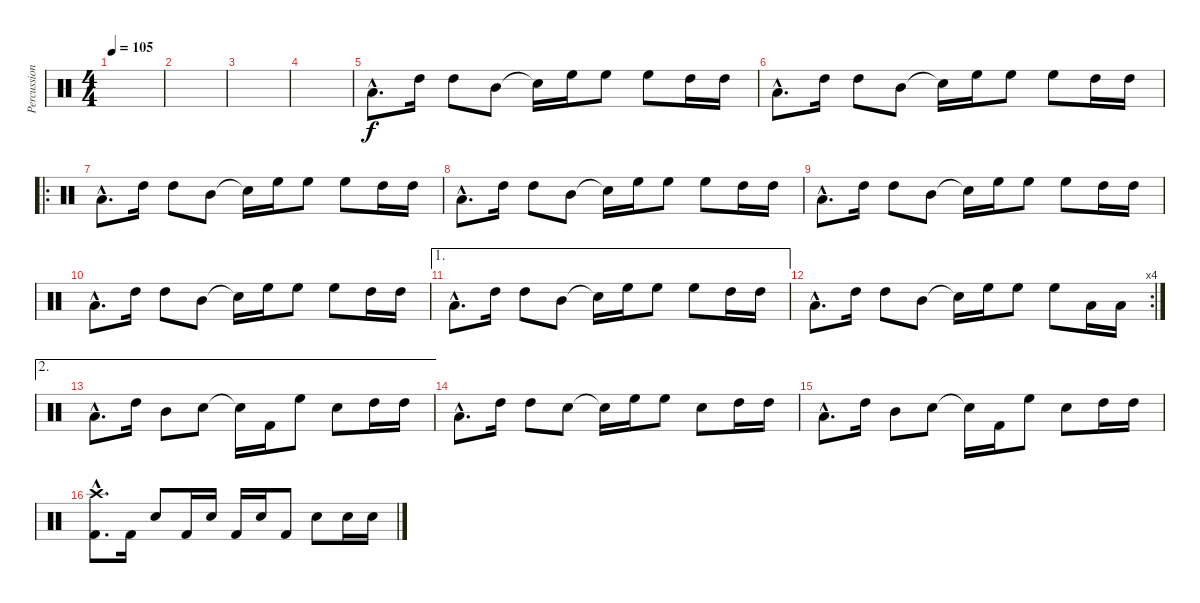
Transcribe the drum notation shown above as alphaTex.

\track ("Percussion" "Percussion") {instrument percussion}
\staff {score}
\articulation defaults
\ts (4 4)
\tempo 105
\clef neutral
\ks c
|
|
|
|
"Low Floor Tom (hit)"{hac}.8{d} "High Tom (hit)".16 "High Tom (hit)".8 "Mid Tom (hit)".8 "Snare (hit)"{t}.16 "High Floor Tom (hit)".16 "High Floor Tom (hit)".8 "High Floor Tom (hit)".8 "High Tom (hit)".16 "High Tom (hit)".16 |
"Low Floor Tom (hit)"{hac}.8{d} "High Tom (hit)".16 "High Tom (hit)".8 "Mid Tom (hit)".8 "Snare (hit)"{t}.16 "High Floor Tom (hit)".16 "High Floor Tom (hit)".8 "High Floor Tom (hit)".8 "High Tom (hit)".16 "High Tom (hit)".16 |
\ro "Low Floor Tom (hit)"{hac}.8{d} "High Tom (hit)".16 "High Tom (hit)".8 "Mid Tom (hit)".8 "Snare (hit)"{t}.16 "High Floor Tom (hit)".16 "High Floor Tom (hit)".8 "High Floor Tom (hit)".8 "High Tom (hit)".16 "High Tom (hit)".16
|
"Low Floor Tom (hit)"{hac}.8{d} "High Tom (hit)".16 "High Tom (hit)".8 "Mid Tom (hit)".8 "Snare (hit)"{t}.16 "High Floor Tom (hit)".16 "High Floor Tom (hit)".8 "High Floor Tom (hit)".8 "High Tom (hit)".16 "High Tom (hit)".16 |
"Low Floor Tom (hit)"{hac}.8{d} "High Tom (hit)".16 "High Tom (hit)".8 "Mid Tom (hit)".8 "Snare (hit)"{t}.16 "High Floor Tom (hit)".16 "High Floor Tom (hit)".8 "High Floor Tom (hit)".8 "High Tom (hit)".16 "High Tom (hit)".16 |
"Low Floor Tom (hit)"{hac}.8{d} "High Tom (hit)".16 "High Tom (hit)".8 "Mid Tom (hit)".8 "Snare (hit)"{t}.16 "High Floor Tom (hit)".16 "High Floor Tom (hit)".8 "High Floor Tom (hit)".8 "High Tom (hit)".16 "High Tom (hit)".16 |
\ae 1 "Low Floor Tom (hit)"{hac}.8{d} "High Tom (hit)".16 "High Tom (hit)".8 "Mid Tom (hit)".8 "Snare (hit)"{t}.16 "High Floor Tom (hit)".16 "High Floor Tom (hit)".8 "High Floor Tom (hit)".8 "High Tom (hit)".16 "High Tom (hit)".16
|
\rc 4 "Low Floor Tom (hit)"{hac}.8{d} "High Tom (hit)".16 "High Tom (hit)".8 "Mid Tom (hit)".8 "Snare (hit)"{t}.16 "High Floor Tom (hit)".16 "High Floor Tom (hit)".8 "High Floor Tom (hit)".8 "Low Floor Tom (hit)".16 "Low Floor Tom (hit)".16
|
\ae 2 "Low Floor Tom (hit)"{hac}.8{d} "High Tom (hit)".16 "Mid Tom (hit)".8 "Snare (hit) 2".8 "Snare (hit)"{t}.16 "Kick (hit) 2".16 "High Floor Tom (hit)".8 "Snare (hit) 2".8 "High Tom (hit)".16 "High Tom (hit)".16
|
"Low Floor Tom (hit)"{hac}.8{d} "High Tom (hit)".16 "High Tom (hit)".8 "Snare (hit) 2".8 "Snare (hit)"{t}.16 "High Floor Tom (hit)".16 "High Floor Tom (hit)".8 "Snare (hit) 2".8 "High Tom (hit)".16 "High Tom (hit)".16 |
"Low Floor Tom (hit)"{hac}.8{d} "High Tom (hit)".16 "Mid Tom (hit)".8 "Snare (hit) 2".8 "Snare (hit)"{t}.16 "Kick (hit) 2".16 "High Floor Tom (hit)".8 "Snare (hit) 2".8 "High Tom (hit)".16 "High Tom (hit)".16 |
("Crash high (hit)"{hac} "Kick (hit) 2"{hac}).8{d} "Kick (hit) 2".16 "Snare (hit) 2".8 "Kick (hit) 2".16 "Snare (hit) 2".16 "Kick (hit) 2".16 "Snare (hit) 2".16 "Kick (hit) 2".8 "Snare (hit) 2".8 "Snare (hit) 2".16 "Snare (hit) 2".16
